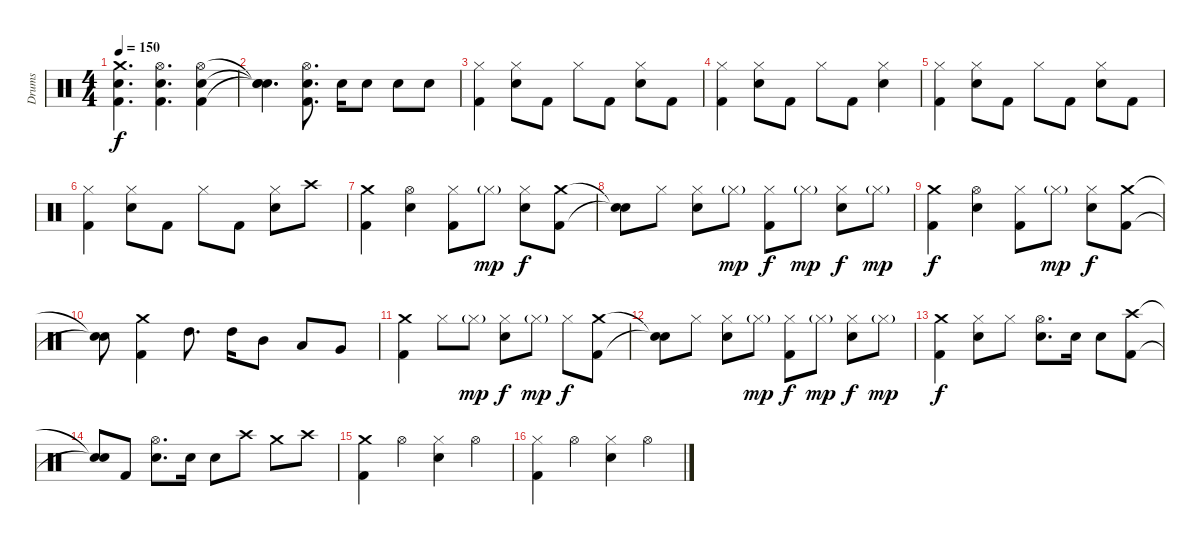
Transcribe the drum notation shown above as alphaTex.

\track ("Drums" "Drums") {instrument percussion}
\staff {score}
\articulation defaults
\ts (4 4)
\tempo 150
\clef neutral
\ks c
("Crash medium (hit)" "Electric Snare (hit)" "Kick (hit) 2").4{d dy f} ("Hi-Hat (open)" "Electric Snare (hit)" "Kick (hit) 2").4{d} ("Hi-Hat (open)" "Electric Snare (hit)" "Kick (hit) 2").4 |
("Snare (hit)"{t} "Snare (hit)"{t} "Snare (hit)"{t}).4{d} ("Hi-Hat (open)" "Electric Snare (hit)" "Kick (hit) 2").8{d} "Electric Snare (hit)".16 "Electric Snare (hit)".8 "Electric Snare (hit)".8 "Electric Snare (hit)".8 |
("Hi-Hat (closed)" "Kick (hit) 2").4 ("Hi-Hat (closed)" "Electric Snare (hit)").8 "Kick (hit) 2".8 "Hi-Hat (closed)".8 "Kick (hit) 2".8 ("Hi-Hat (closed)" "Electric Snare (hit)").8 "Kick (hit) 2".8 |
("Hi-Hat (closed)" "Kick (hit) 2").4 ("Hi-Hat (closed)" "Electric Snare (hit)").8 "Kick (hit) 2".8 "Hi-Hat (closed)".8 "Kick (hit) 2".8 ("Hi-Hat (closed)" "Electric Snare (hit)").4 |
("Hi-Hat (closed)" "Kick (hit) 2").4 ("Hi-Hat (closed)" "Electric Snare (hit)").8 "Kick (hit) 2".8 "Hi-Hat (closed)".8 "Kick (hit) 2".8 ("Hi-Hat (closed)" "Electric Snare (hit)").8 "Kick (hit) 2".8 |
("Hi-Hat (closed)" "Kick (hit) 2").4 ("Hi-Hat (closed)" "Electric Snare (hit)").8 "Kick (hit) 2".8 "Hi-Hat (closed)".8 "Kick (hit) 2".8 ("Hi-Hat (closed)" "Electric Snare (hit)").8 "Crash high (hit)".8 |
("Crash medium (hit)" "Kick (hit) 2").4 ("Hi-Hat (open)" "Electric Snare (hit)").4 ("Hi-Hat (closed)" "Kick (hit) 2").8 "Hi-Hat (closed)"{g}.8{dy mp} ("Hi-Hat (closed)" "Electric Snare (hit)").8{dy f} ("Crash medium (hit)" "Kick (hit) 2").8 |
("Snare (hit)"{t} "Snare (hit)"{t}).8 "Hi-Hat (closed)".8 ("Hi-Hat (closed)" "Electric Snare (hit)").8 "Hi-Hat (closed)"{g}.8{dy mp} ("Hi-Hat (closed)" "Kick (hit) 2").8{dy f} "Hi-Hat (closed)"{g}.8{dy mp} ("Hi-Hat (closed)" "Electric Snare (hit)").8{dy f} "Hi-Hat (closed)"{g}.8{dy mp} |
("Crash medium (hit)" "Kick (hit) 2").4{dy f} ("Hi-Hat (open)" "Electric Snare (hit)").4 ("Hi-Hat (closed)" "Kick (hit) 2").8 "Hi-Hat (closed)"{g}.8{dy mp} ("Hi-Hat (closed)" "Electric Snare (hit)").8{dy f} ("Crash medium (hit)" "Kick (hit) 2").8 |
("Snare (hit)"{t} "Snare (hit)"{t}).8 ("Crash medium (hit)" "Kick (hit) 2").4 "High Tom (hit)".8{d} "High Tom (hit)".16 "Mid Tom (hit)".8 "Low Tom (hit)".8 "Very Low Tom (hit)".8 |
("Crash medium (hit)" "Kick (hit) 2").4 "Hi-Hat (closed)".8 "Hi-Hat (closed)"{g}.8{dy mp} ("Hi-Hat (closed)" "Electric Snare (hit)").8{dy f} "Hi-Hat (closed)"{g}.8{dy mp} "Hi-Hat (closed)".8{dy f} ("Crash medium (hit)" "Kick (hit) 2").8 |
("Snare (hit)"{t} "Snare (hit)"{t}).8 "Hi-Hat (closed)".8 ("Hi-Hat (closed)" "Electric Snare (hit)").8 "Hi-Hat (closed)"{g}.8{dy mp} ("Hi-Hat (closed)" "Kick (hit) 2").8{dy f} "Hi-Hat (closed)"{g}.8{dy mp} ("Hi-Hat (closed)" "Electric Snare (hit)").8{dy f} "Hi-Hat (closed)"{g}.8{dy mp} |
("Crash medium (hit)" "Kick (hit) 2").4{dy f} ("Hi-Hat (closed)" "Electric Snare (hit)").8 "Hi-Hat (closed)".8 ("Hi-Hat (open)" "Electric Snare (hit)").8{d} "Electric Snare (hit)".16 "Electric Snare (hit)".8 ("Crash high (hit)" "Kick (hit) 2").8 |
("Snare (hit)"{t} "Snare (hit)"{t}).8 "Kick (hit) 2".8 ("Hi-Hat (open)" "Electric Snare (hit)").8{d} "Electric Snare (hit)".16 "Electric Snare (hit)".8 "Crash high (hit)".8 "Crash medium (hit)".8 "Crash high (hit)".8 |
("Crash medium (hit)" "Kick (hit) 2").4 "Hi-Hat (open)".4 ("Hi-Hat (closed)" "Electric Snare (hit)").4 "Hi-Hat (open)".4 |
("Hi-Hat (closed)" "Kick (hit) 2").4 "Hi-Hat (open)".4 ("Hi-Hat (closed)" "Electric Snare (hit)").4 "Hi-Hat (open)".4
